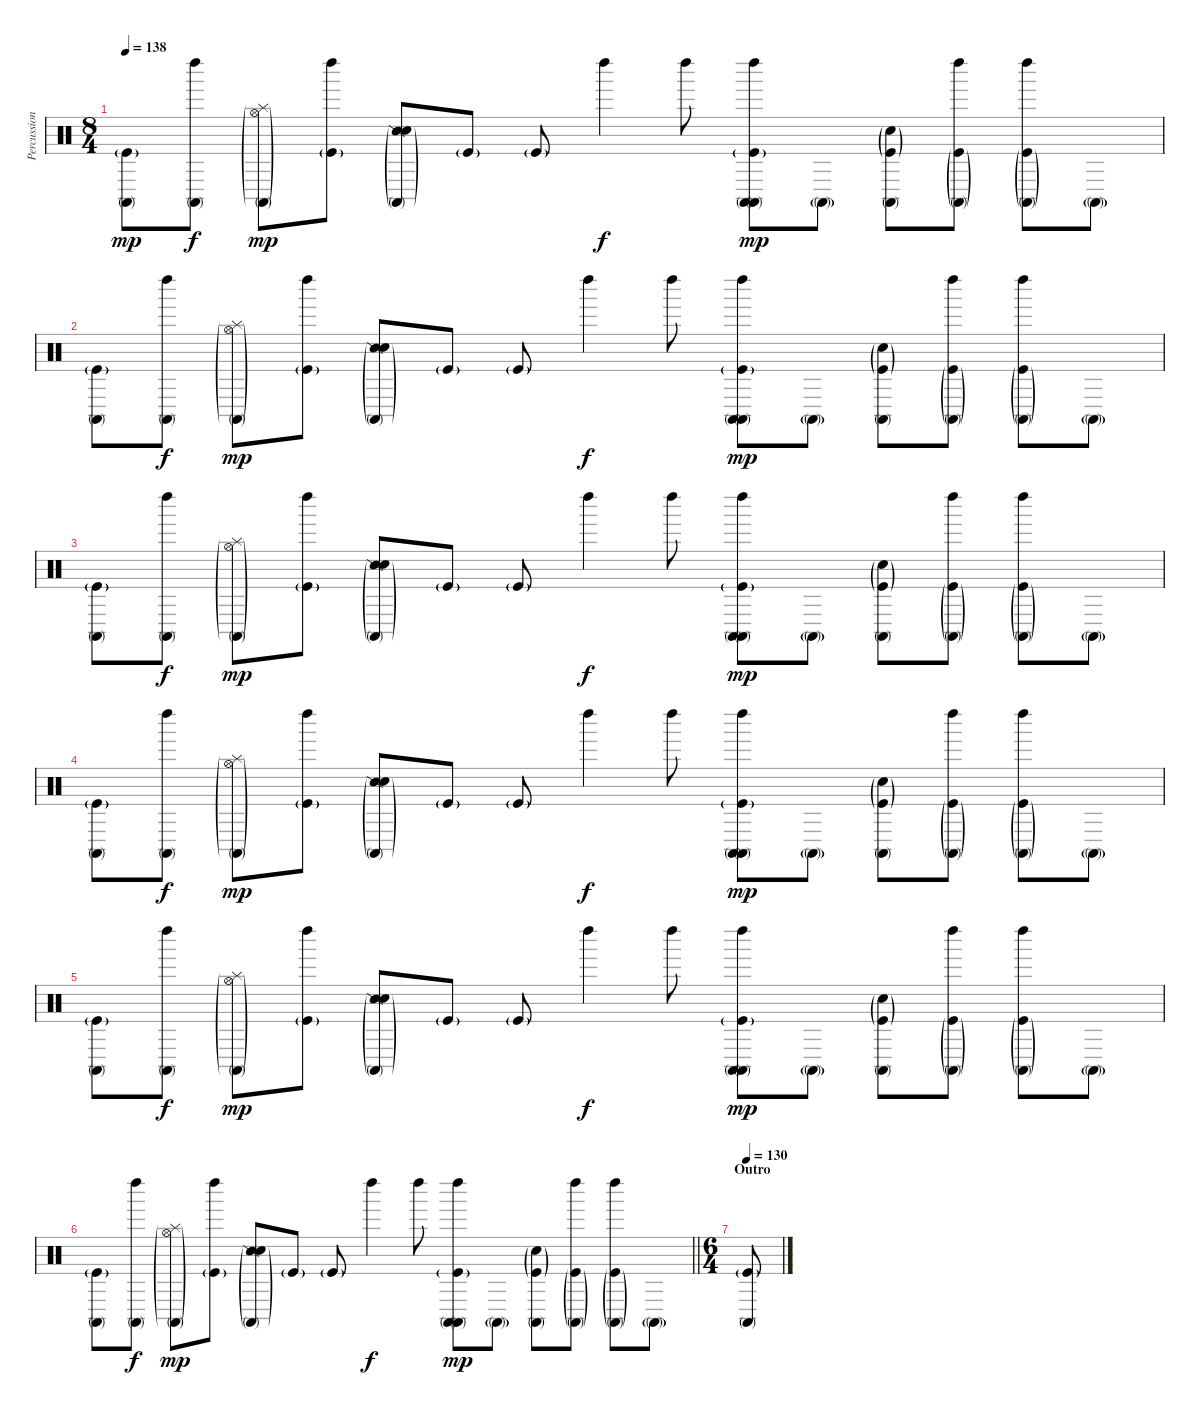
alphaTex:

\track ("Percussions" "Percussion") {instrument percussion}
\staff {score}
\articulation defaults
\ts (8 4)
\tempo 138
\clef neutral
\ks c
("Conga high (mute)" "Kick (hit)"{g}).8{dy mp} ("Conga high (mute)" "Left Maraca (hit)").8{dy f} ("Splash (hit)"{g} "Hi-Hat (open)"{g} "Conga high (mute)"{g}).8{dy mp} ("Kick (hit)"{g} "Left Maraca (hit)").8 ("Snare (side stick) 2"{g} "Electric Snare (hit)"{g} "Conga high (mute)"{g}).8 "Kick (hit)"{g}.8 "Kick (hit)"{g}.8 "Left Maraca (hit)".4{dy f} "Left Maraca (hit)".8 ("Conga high (mute)" "Conga high (mute)" "Kick (hit)"{g} "Left Maraca (hit)").8{dy mp} "Conga high (mute)"{g}.8 ("Electric Snare (hit)"{g} "Conga high (mute)" "Kick (hit)"{g}).8 ("Conga high (mute)"{g} "Kick (hit)"{g} "Left Maraca (hit)").8 ("Conga high (mute)"{g} "Kick (hit)"{g} "Left Maraca (hit)").8 "Conga high (mute)"{g}.8 |
("Conga high (mute)" "Kick (hit)"{g}).8 ("Conga high (mute)" "Left Maraca (hit)").8{dy f} ("Splash (hit)"{g} "Hi-Hat (open)"{g} "Conga high (mute)"{g}).8{dy mp} ("Kick (hit)"{g} "Left Maraca (hit)").8 ("Snare (side stick) 2"{g} "Electric Snare (hit)"{g} "Conga high (mute)"{g}).8 "Kick (hit)"{g}.8 "Kick (hit)"{g}.8 "Left Maraca (hit)".4{dy f} "Left Maraca (hit)".8 ("Conga high (mute)" "Conga high (mute)" "Kick (hit)"{g} "Left Maraca (hit)").8{dy mp} "Conga high (mute)"{g}.8 ("Electric Snare (hit)"{g} "Conga high (mute)" "Kick (hit)"{g}).8 ("Conga high (mute)"{g} "Kick (hit)"{g} "Left Maraca (hit)").8 ("Conga high (mute)"{g} "Kick (hit)"{g} "Left Maraca (hit)").8 "Conga high (mute)"{g}.8 |
("Conga high (mute)" "Kick (hit)"{g}).8 ("Conga high (mute)" "Left Maraca (hit)").8{dy f} ("Splash (hit)"{g} "Hi-Hat (open)"{g} "Conga high (mute)"{g}).8{dy mp} ("Kick (hit)"{g} "Left Maraca (hit)").8 ("Snare (side stick) 2"{g} "Electric Snare (hit)"{g} "Conga high (mute)"{g}).8 "Kick (hit)"{g}.8 "Kick (hit)"{g}.8 "Left Maraca (hit)".4{dy f} "Left Maraca (hit)".8 ("Conga high (mute)" "Conga high (mute)" "Kick (hit)"{g} "Left Maraca (hit)").8{dy mp} "Conga high (mute)"{g}.8 ("Electric Snare (hit)"{g} "Conga high (mute)" "Kick (hit)"{g}).8 ("Conga high (mute)"{g} "Kick (hit)"{g} "Left Maraca (hit)").8 ("Conga high (mute)"{g} "Kick (hit)"{g} "Left Maraca (hit)").8 "Conga high (mute)"{g}.8 |
("Conga high (mute)" "Kick (hit)"{g}).8 ("Conga high (mute)" "Left Maraca (hit)").8{dy f} ("Splash (hit)"{g} "Hi-Hat (open)"{g} "Conga high (mute)"{g}).8{dy mp} ("Kick (hit)"{g} "Left Maraca (hit)").8 ("Snare (side stick) 2"{g} "Electric Snare (hit)"{g} "Conga high (mute)"{g}).8 "Kick (hit)"{g}.8 "Kick (hit)"{g}.8 "Left Maraca (hit)".4{dy f} "Left Maraca (hit)".8 ("Conga high (mute)" "Conga high (mute)" "Kick (hit)"{g} "Left Maraca (hit)").8{dy mp} "Conga high (mute)"{g}.8 ("Electric Snare (hit)"{g} "Conga high (mute)" "Kick (hit)"{g}).8 ("Conga high (mute)"{g} "Kick (hit)"{g} "Left Maraca (hit)").8 ("Conga high (mute)"{g} "Kick (hit)"{g} "Left Maraca (hit)").8 "Conga high (mute)"{g}.8 |
("Conga high (mute)" "Kick (hit)"{g}).8 ("Conga high (mute)" "Left Maraca (hit)").8{dy f} ("Splash (hit)"{g} "Hi-Hat (open)"{g} "Conga high (mute)"{g}).8{dy mp} ("Kick (hit)"{g} "Left Maraca (hit)").8 ("Snare (side stick) 2"{g} "Electric Snare (hit)"{g} "Conga high (mute)"{g}).8 "Kick (hit)"{g}.8 "Kick (hit)"{g}.8 "Left Maraca (hit)".4{dy f} "Left Maraca (hit)".8 ("Conga high (mute)" "Conga high (mute)" "Kick (hit)"{g} "Left Maraca (hit)").8{dy mp} "Conga high (mute)"{g}.8 ("Electric Snare (hit)"{g} "Conga high (mute)" "Kick (hit)"{g}).8 ("Conga high (mute)"{g} "Kick (hit)"{g} "Left Maraca (hit)").8 ("Conga high (mute)"{g} "Kick (hit)"{g} "Left Maraca (hit)").8 "Conga high (mute)"{g}.8 |
\barLineRight lightlight
("Conga high (mute)" "Kick (hit)"{g}).8 ("Conga high (mute)" "Left Maraca (hit)").8{dy f} ("Splash (hit)"{g} "Hi-Hat (open)"{g} "Conga high (mute)"{g}).8{dy mp} ("Kick (hit)"{g} "Left Maraca (hit)").8 ("Snare (side stick) 2"{g} "Electric Snare (hit)"{g} "Conga high (mute)"{g}).8 "Kick (hit)"{g}.8 "Kick (hit)"{g}.8 "Left Maraca (hit)".4{dy f} "Left Maraca (hit)".8 ("Conga high (mute)" "Conga high (mute)" "Kick (hit)"{g} "Left Maraca (hit)").8{dy mp} "Conga high (mute)"{g}.8 ("Electric Snare (hit)"{g} "Conga high (mute)" "Kick (hit)"{g}).8 ("Conga high (mute)"{g} "Kick (hit)"{g} "Left Maraca (hit)").8 ("Conga high (mute)"{g} "Kick (hit)"{g} "Left Maraca (hit)").8 "Conga high (mute)"{g}.8 |
\ts (6 4)
\section ("" "Outro")
\tempo 130
("Conga high (mute)" "Kick (hit)"{g}).8
